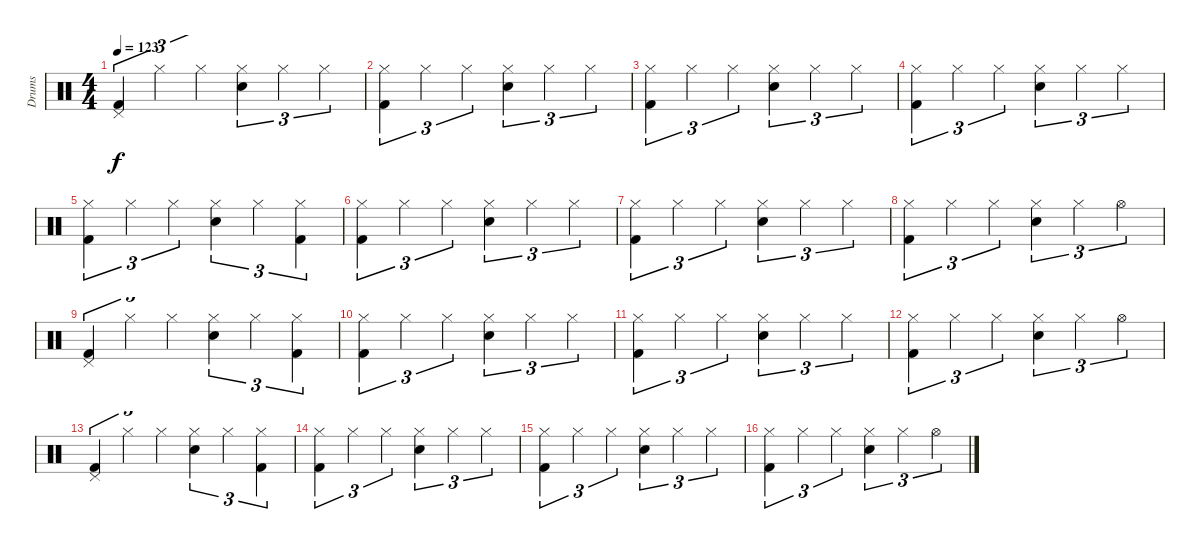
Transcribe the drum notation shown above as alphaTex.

\track ("Drums" "Drums") {instrument percussion}
\staff {score}
\articulation defaults
\ts (4 4)
\tempo 123
\clef neutral
\ks c
("Pedal Hi-Hat (hit)" "Kick (hit) 2").4{tu (3 2) dy f} "Hi-Hat (closed)".4{tu (3 2)} "Hi-Hat (closed)".4{tu (3 2)} ("Hi-Hat (closed)" "Electric Snare (hit)").4{tu (3 2)} "Hi-Hat (closed)".4{tu (3 2)} "Hi-Hat (closed)".4{tu (3 2)} |
("Hi-Hat (closed)" "Kick (hit) 2").4{tu (3 2)} "Hi-Hat (closed)".4{tu (3 2)} "Hi-Hat (closed)".4{tu (3 2)} ("Hi-Hat (closed)" "Electric Snare (hit)").4{tu (3 2)} "Hi-Hat (closed)".4{tu (3 2)} "Hi-Hat (closed)".4{tu (3 2)} |
("Hi-Hat (closed)" "Kick (hit) 2").4{tu (3 2)} "Hi-Hat (closed)".4{tu (3 2)} "Hi-Hat (closed)".4{tu (3 2)} ("Hi-Hat (closed)" "Electric Snare (hit)").4{tu (3 2)} "Hi-Hat (closed)".4{tu (3 2)} "Hi-Hat (closed)".4{tu (3 2)} |
("Hi-Hat (closed)" "Kick (hit) 2").4{tu (3 2)} "Hi-Hat (closed)".4{tu (3 2)} "Hi-Hat (closed)".4{tu (3 2)} ("Hi-Hat (closed)" "Electric Snare (hit)").4{tu (3 2)} "Hi-Hat (closed)".4{tu (3 2)} "Hi-Hat (closed)".4{tu (3 2)} |
("Hi-Hat (closed)" "Kick (hit) 2").4{tu (3 2)} "Hi-Hat (closed)".4{tu (3 2)} "Hi-Hat (closed)".4{tu (3 2)} ("Hi-Hat (closed)" "Electric Snare (hit)").4{tu (3 2)} "Hi-Hat (closed)".4{tu (3 2)} ("Hi-Hat (closed)" "Kick (hit) 2").4{tu (3 2)} |
("Hi-Hat (closed)" "Kick (hit) 2").4{tu (3 2)} "Hi-Hat (closed)".4{tu (3 2)} "Hi-Hat (closed)".4{tu (3 2)} ("Hi-Hat (closed)" "Electric Snare (hit)").4{tu (3 2)} "Hi-Hat (closed)".4{tu (3 2)} "Hi-Hat (closed)".4{tu (3 2)} |
("Hi-Hat (closed)" "Kick (hit) 2").4{tu (3 2)} "Hi-Hat (closed)".4{tu (3 2)} "Hi-Hat (closed)".4{tu (3 2)} ("Hi-Hat (closed)" "Electric Snare (hit)").4{tu (3 2)} "Hi-Hat (closed)".4{tu (3 2)} "Hi-Hat (closed)".4{tu (3 2)} |
("Hi-Hat (closed)" "Kick (hit) 2").4{tu (3 2)} "Hi-Hat (closed)".4{tu (3 2)} "Hi-Hat (closed)".4{tu (3 2)} ("Hi-Hat (closed)" "Electric Snare (hit)").4{tu (3 2)} "Hi-Hat (closed)".4{tu (3 2)} "Hi-Hat (open)".4{tu (3 2)} |
("Pedal Hi-Hat (hit)" "Kick (hit) 2").4{tu (3 2)} "Hi-Hat (closed)".4{tu (3 2)} "Hi-Hat (closed)".4{tu (3 2)} ("Hi-Hat (closed)" "Electric Snare (hit)").4{tu (3 2)} "Hi-Hat (closed)".4{tu (3 2)} ("Hi-Hat (closed)" "Kick (hit) 2").4{tu (3 2)} |
("Hi-Hat (closed)" "Kick (hit) 2").4{tu (3 2)} "Hi-Hat (closed)".4{tu (3 2)} "Hi-Hat (closed)".4{tu (3 2)} ("Hi-Hat (closed)" "Electric Snare (hit)").4{tu (3 2)} "Hi-Hat (closed)".4{tu (3 2)} "Hi-Hat (closed)".4{tu (3 2)} |
("Hi-Hat (closed)" "Kick (hit) 2").4{tu (3 2)} "Hi-Hat (closed)".4{tu (3 2)} "Hi-Hat (closed)".4{tu (3 2)} ("Hi-Hat (closed)" "Electric Snare (hit)").4{tu (3 2)} "Hi-Hat (closed)".4{tu (3 2)} "Hi-Hat (closed)".4{tu (3 2)} |
("Hi-Hat (closed)" "Kick (hit) 2").4{tu (3 2)} "Hi-Hat (closed)".4{tu (3 2)} "Hi-Hat (closed)".4{tu (3 2)} ("Hi-Hat (closed)" "Electric Snare (hit)").4{tu (3 2)} "Hi-Hat (closed)".4{tu (3 2)} "Hi-Hat (open)".4{tu (3 2)} |
("Pedal Hi-Hat (hit)" "Kick (hit) 2").4{tu (3 2)} "Hi-Hat (closed)".4{tu (3 2)} "Hi-Hat (closed)".4{tu (3 2)} ("Hi-Hat (closed)" "Electric Snare (hit)").4{tu (3 2)} "Hi-Hat (closed)".4{tu (3 2)} ("Hi-Hat (closed)" "Kick (hit) 2").4{tu (3 2)} |
("Hi-Hat (closed)" "Kick (hit) 2").4{tu (3 2)} "Hi-Hat (closed)".4{tu (3 2)} "Hi-Hat (closed)".4{tu (3 2)} ("Hi-Hat (closed)" "Electric Snare (hit)").4{tu (3 2)} "Hi-Hat (closed)".4{tu (3 2)} "Hi-Hat (closed)".4{tu (3 2)} |
("Hi-Hat (closed)" "Kick (hit) 2").4{tu (3 2)} "Hi-Hat (closed)".4{tu (3 2)} "Hi-Hat (closed)".4{tu (3 2)} ("Hi-Hat (closed)" "Electric Snare (hit)").4{tu (3 2)} "Hi-Hat (closed)".4{tu (3 2)} "Hi-Hat (closed)".4{tu (3 2)} |
("Hi-Hat (closed)" "Kick (hit) 2").4{tu (3 2)} "Hi-Hat (closed)".4{tu (3 2)} "Hi-Hat (closed)".4{tu (3 2)} ("Hi-Hat (closed)" "Electric Snare (hit)").4{tu (3 2)} "Hi-Hat (closed)".4{tu (3 2)} "Hi-Hat (open)".4{tu (3 2)}
